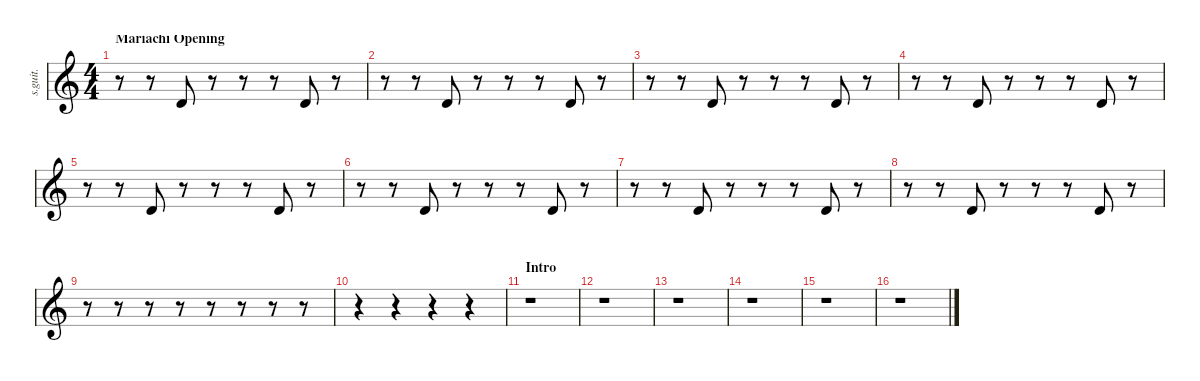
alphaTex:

\defaultSystemsLayout 4
\hideDynamics
\bracketExtendMode nobrackets
\track ("Mariachi Band | Percussion" "s.guit.") {instrument percussion}
\staff {score}
\articulation defaults
\ts (4 4)
\beaming (8 2 2 2 2)
\section ("" "Mariachi Opening")
\tempo (173 hide)
\clef g2
\ks c
r.8{dy f} r.8 "Timbale high (hit)".8{lyrics (0 "") lyrics (1 "") lyrics (2 "") lyrics (3 "") lyrics (4 "")} r.8 r.8 r.8 "Timbale high (hit)".8{lyrics (0 "") lyrics (1 "") lyrics (2 "") lyrics (3 "") lyrics (4 "")} r.8 |
r.8 r.8 "Timbale high (hit)".8{lyrics (0 "") lyrics (1 "") lyrics (2 "") lyrics (3 "") lyrics (4 "")} r.8 r.8 r.8 "Timbale high (hit)".8{lyrics (0 "") lyrics (1 "") lyrics (2 "") lyrics (3 "") lyrics (4 "")} r.8 |
r.8 r.8 "Timbale high (hit)".8{lyrics (0 "") lyrics (1 "") lyrics (2 "") lyrics (3 "") lyrics (4 "")} r.8 r.8 r.8 "Timbale high (hit)".8{lyrics (0 "") lyrics (1 "") lyrics (2 "") lyrics (3 "") lyrics (4 "")} r.8 |
r.8 r.8 "Timbale high (hit)".8{lyrics (0 "") lyrics (1 "") lyrics (2 "") lyrics (3 "") lyrics (4 "")} r.8 r.8 r.8 "Timbale high (hit)".8{lyrics (0 "") lyrics (1 "") lyrics (2 "") lyrics (3 "") lyrics (4 "")} r.8 |
r.8 r.8 "Timbale high (hit)".8{lyrics (0 "") lyrics (1 "") lyrics (2 "") lyrics (3 "") lyrics (4 "")} r.8 r.8 r.8 "Timbale high (hit)".8{lyrics (0 "") lyrics (1 "") lyrics (2 "") lyrics (3 "") lyrics (4 "")} r.8 |
r.8 r.8 "Timbale high (hit)".8{lyrics (0 "") lyrics (1 "") lyrics (2 "") lyrics (3 "") lyrics (4 "")} r.8 r.8 r.8 "Timbale high (hit)".8{lyrics (0 "") lyrics (1 "") lyrics (2 "") lyrics (3 "") lyrics (4 "")} r.8 |
r.8 r.8 "Timbale high (hit)".8{lyrics (0 "") lyrics (1 "") lyrics (2 "") lyrics (3 "") lyrics (4 "")} r.8 r.8 r.8 "Timbale high (hit)".8{lyrics (0 "") lyrics (1 "") lyrics (2 "") lyrics (3 "") lyrics (4 "")} r.8 |
r.8 r.8 "Timbale high (hit)".8{lyrics (0 "") lyrics (1 "") lyrics (2 "") lyrics (3 "") lyrics (4 "")} r.8 r.8 r.8 "Timbale high (hit)".8{lyrics (0 "") lyrics (1 "") lyrics (2 "") lyrics (3 "") lyrics (4 "")} r.8 |
r.8 r.8 r.8 r.8 r.8 r.8 r.8 r.8 |
r.4 r.4 r.4 r.4 |
\section ("" "Intro")
r.1 |
r.1 |
r.1 |
r.1 |
r.1 |
r.1
